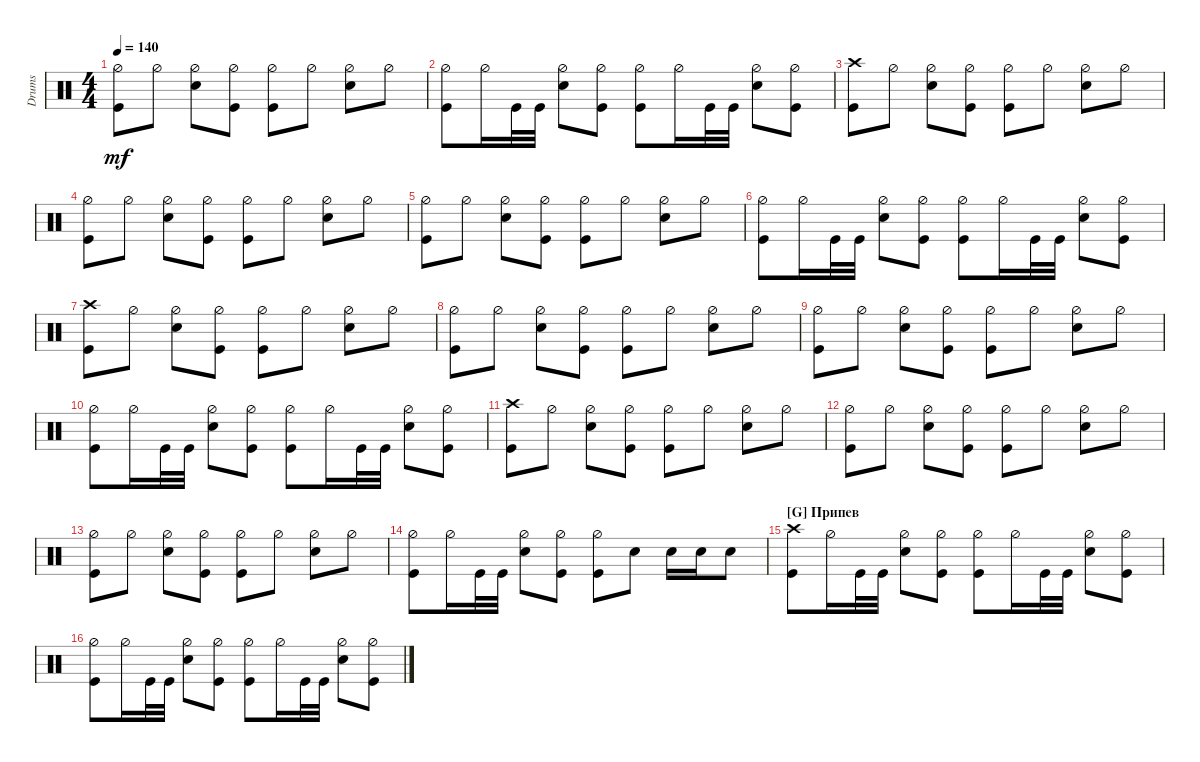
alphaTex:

\track ("Drumkit" "Drums") {instrument percussion}
\staff {score}
\articulation defaults
\ts (4 4)
\tempo 140
\clef neutral
\ks c
("Kick (hit)" "Hi-Hat (half)").8{dy mf} "Hi-Hat (half)".8 ("Snare (hit) 2" "Hi-Hat (half)").8 ("Kick (hit)" "Hi-Hat (half)").8 ("Kick (hit)" "Hi-Hat (half)").8 "Hi-Hat (half)".8 ("Snare (hit) 2" "Hi-Hat (half)").8 "Hi-Hat (half)".8 |
("Kick (hit)" "Hi-Hat (half)").8 "Hi-Hat (half)".16 "Kick (hit)".32 "Kick (hit)".32 ("Hi-Hat (half)" "Snare (hit) 2").8 ("Kick (hit)" "Hi-Hat (half)").8 ("Kick (hit)" "Hi-Hat (half)").8 "Hi-Hat (half)".16 "Kick (hit)".32 "Kick (hit)".32 ("Hi-Hat (half)" "Snare (hit) 2").8 ("Hi-Hat (half)" "Kick (hit)").8 |
("Kick (hit)" "Crash high (hit)").8 "Hi-Hat (half)".8 ("Snare (hit) 2" "Hi-Hat (half)").8 ("Kick (hit)" "Hi-Hat (half)").8 ("Kick (hit)" "Hi-Hat (half)").8 "Hi-Hat (half)".8 ("Snare (hit) 2" "Hi-Hat (half)").8 "Hi-Hat (half)".8 |
("Kick (hit)" "Hi-Hat (half)").8 "Hi-Hat (half)".8 ("Snare (hit) 2" "Hi-Hat (half)").8 ("Kick (hit)" "Hi-Hat (half)").8 ("Kick (hit)" "Hi-Hat (half)").8 "Hi-Hat (half)".8 ("Snare (hit) 2" "Hi-Hat (half)").8 "Hi-Hat (half)".8 |
("Kick (hit)" "Hi-Hat (half)").8 "Hi-Hat (half)".8 ("Snare (hit) 2" "Hi-Hat (half)").8 ("Kick (hit)" "Hi-Hat (half)").8 ("Kick (hit)" "Hi-Hat (half)").8 "Hi-Hat (half)".8 ("Snare (hit) 2" "Hi-Hat (half)").8 "Hi-Hat (half)".8 |
("Kick (hit)" "Hi-Hat (half)").8 "Hi-Hat (half)".16 "Kick (hit)".32 "Kick (hit)".32 ("Hi-Hat (half)" "Snare (hit) 2").8 ("Kick (hit)" "Hi-Hat (half)").8 ("Kick (hit)" "Hi-Hat (half)").8 "Hi-Hat (half)".16 "Kick (hit)".32 "Kick (hit)".32 ("Hi-Hat (half)" "Snare (hit) 2").8 ("Hi-Hat (half)" "Kick (hit)").8 |
("Kick (hit)" "Crash high (hit)").8 "Hi-Hat (half)".8 ("Snare (hit) 2" "Hi-Hat (half)").8 ("Kick (hit)" "Hi-Hat (half)").8 ("Kick (hit)" "Hi-Hat (half)").8 "Hi-Hat (half)".8 ("Snare (hit) 2" "Hi-Hat (half)").8 "Hi-Hat (half)".8 |
("Kick (hit)" "Hi-Hat (half)").8 "Hi-Hat (half)".8 ("Snare (hit) 2" "Hi-Hat (half)").8 ("Kick (hit)" "Hi-Hat (half)").8 ("Kick (hit)" "Hi-Hat (half)").8 "Hi-Hat (half)".8 ("Snare (hit) 2" "Hi-Hat (half)").8 "Hi-Hat (half)".8 |
("Kick (hit)" "Hi-Hat (half)").8 "Hi-Hat (half)".8 ("Snare (hit) 2" "Hi-Hat (half)").8 ("Kick (hit)" "Hi-Hat (half)").8 ("Kick (hit)" "Hi-Hat (half)").8 "Hi-Hat (half)".8 ("Snare (hit) 2" "Hi-Hat (half)").8 "Hi-Hat (half)".8 |
("Kick (hit)" "Hi-Hat (half)").8 "Hi-Hat (half)".16 "Kick (hit)".32 "Kick (hit)".32 ("Hi-Hat (half)" "Snare (hit) 2").8 ("Kick (hit)" "Hi-Hat (half)").8 ("Kick (hit)" "Hi-Hat (half)").8 "Hi-Hat (half)".16 "Kick (hit)".32 "Kick (hit)".32 ("Hi-Hat (half)" "Snare (hit) 2").8 ("Hi-Hat (half)" "Kick (hit)").8 |
("Kick (hit)" "Crash high (hit)").8 "Hi-Hat (half)".8 ("Snare (hit) 2" "Hi-Hat (half)").8 ("Kick (hit)" "Hi-Hat (half)").8 ("Kick (hit)" "Hi-Hat (half)").8 "Hi-Hat (half)".8 ("Snare (hit) 2" "Hi-Hat (half)").8 "Hi-Hat (half)".8 |
("Kick (hit)" "Hi-Hat (half)").8 "Hi-Hat (half)".8 ("Snare (hit) 2" "Hi-Hat (half)").8 ("Kick (hit)" "Hi-Hat (half)").8 ("Kick (hit)" "Hi-Hat (half)").8 "Hi-Hat (half)".8 ("Snare (hit) 2" "Hi-Hat (half)").8 "Hi-Hat (half)".8 |
("Kick (hit)" "Hi-Hat (half)").8 "Hi-Hat (half)".8 ("Snare (hit) 2" "Hi-Hat (half)").8 ("Kick (hit)" "Hi-Hat (half)").8 ("Kick (hit)" "Hi-Hat (half)").8 "Hi-Hat (half)".8 ("Snare (hit) 2" "Hi-Hat (half)").8 "Hi-Hat (half)".8 |
("Kick (hit)" "Hi-Hat (half)").8 "Hi-Hat (half)".16 "Kick (hit)".32 "Kick (hit)".32 ("Hi-Hat (half)" "Snare (hit) 2").8 ("Kick (hit)" "Hi-Hat (half)").8 ("Kick (hit)" "Hi-Hat (half)").8 "Snare (hit) 2".8 "Snare (hit) 2".16 "Snare (hit) 2".16 "Snare (hit) 2".8 |
\section ("G" "Припев")
("Kick (hit)" "Crash high (hit)").8 "Hi-Hat (half)".16 "Kick (hit)".32 "Kick (hit)".32 ("Hi-Hat (half)" "Snare (hit) 2").8 ("Kick (hit)" "Hi-Hat (half)").8 ("Kick (hit)" "Hi-Hat (half)").8 "Hi-Hat (half)".16 "Kick (hit)".32 "Kick (hit)".32 ("Hi-Hat (half)" "Snare (hit) 2").8 ("Hi-Hat (half)" "Kick (hit)").8 |
("Kick (hit)" "Hi-Hat (half)").8 "Hi-Hat (half)".16 "Kick (hit)".32 "Kick (hit)".32 ("Hi-Hat (half)" "Snare (hit) 2").8 ("Kick (hit)" "Hi-Hat (half)").8 ("Kick (hit)" "Hi-Hat (half)").8 "Hi-Hat (half)".16 "Kick (hit)".32 "Kick (hit)".32 ("Hi-Hat (half)" "Snare (hit) 2").8 ("Hi-Hat (half)" "Kick (hit)").8
